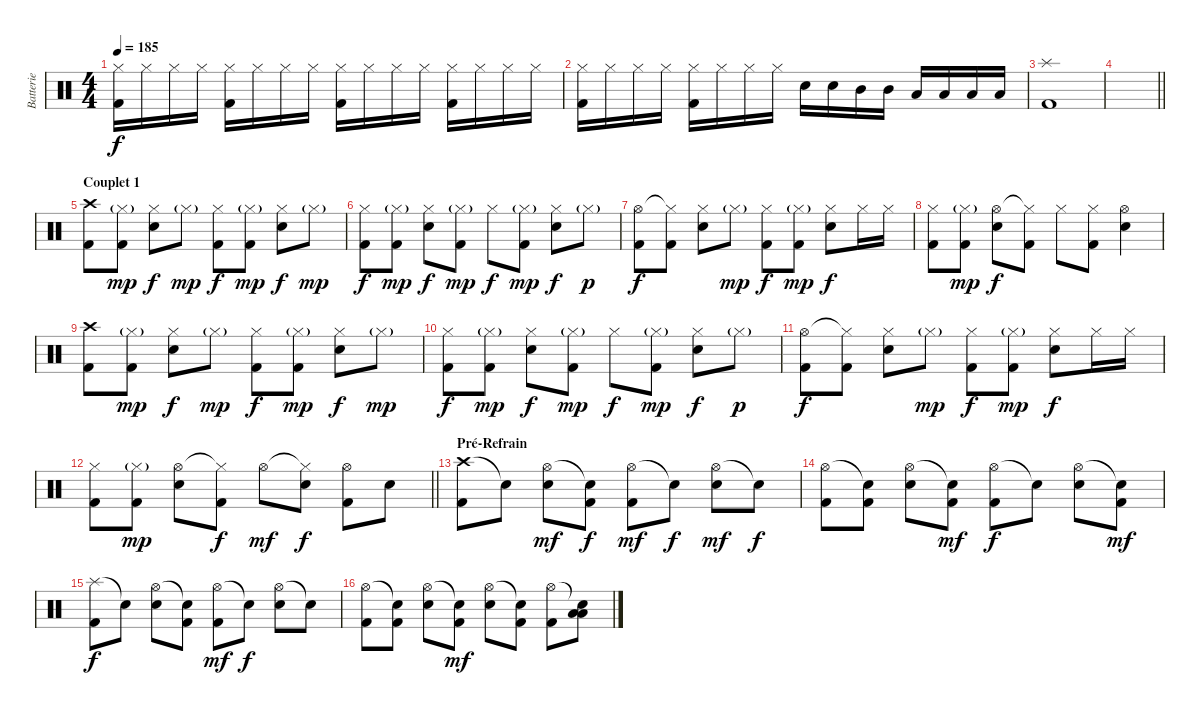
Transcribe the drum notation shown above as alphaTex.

\track ("Batterie" "Batterie") {instrument percussion}
\staff {score}
\articulation defaults
\ts (4 4)
\tempo 185
\clef neutral
\ks c
("Hi-Hat (closed)" "Kick (hit) 2").16{dy f} "Hi-Hat (closed)".16 "Hi-Hat (closed)".16 "Hi-Hat (closed)".16 ("Hi-Hat (closed)" "Kick (hit) 2").16 "Hi-Hat (closed)".16 "Hi-Hat (closed)".16 "Hi-Hat (closed)".16 ("Hi-Hat (closed)" "Kick (hit) 2").16 "Hi-Hat (closed)".16 "Hi-Hat (closed)".16 "Hi-Hat (closed)".16 ("Hi-Hat (closed)" "Kick (hit) 2").16 "Hi-Hat (closed)".16 "Hi-Hat (closed)".16 "Hi-Hat (closed)".16 |
("Hi-Hat (closed)" "Kick (hit) 2").16 "Hi-Hat (closed)".16 "Hi-Hat (closed)".16 "Hi-Hat (closed)".16 ("Hi-Hat (closed)" "Kick (hit) 2").16 "Hi-Hat (closed)".16 "Hi-Hat (closed)".16 "Hi-Hat (closed)".16 "Electric Snare (hit)".16 "Electric Snare (hit)".16 "Mid Tom (hit)".16 "Mid Tom (hit)".16 "Low Tom (hit)".16 "Low Tom (hit)".16 "Low Floor Tom (hit)".16 "Low Floor Tom (hit)".16 |
("Splash (hit)" "Kick (hit) 2").1 |
\barLineRight lightlight
|
\section ("" "Couplet 1")
("Crash high (hit)" "Kick (hit) 2").8 ("Hi-Hat (closed)"{g} "Kick (hit) 2").8{dy mp} ("Hi-Hat (closed)" "Electric Snare (hit)").8{dy f} "Hi-Hat (closed)"{g}.8{dy mp} ("Hi-Hat (closed)" "Kick (hit) 2").8{dy f} ("Hi-Hat (closed)"{g} "Kick (hit) 2").8{dy mp} ("Hi-Hat (closed)" "Electric Snare (hit)").8{dy f} "Hi-Hat (closed)"{g}.8{dy mp} |
("Hi-Hat (closed)" "Kick (hit) 2").8{dy f} ("Hi-Hat (closed)"{g} "Kick (hit) 2").8{dy mp} ("Hi-Hat (closed)" "Electric Snare (hit)").8{dy f} ("Hi-Hat (closed)"{g} "Kick (hit) 2").8{dy mp} "Hi-Hat (closed)".8{dy f} ("Hi-Hat (closed)"{g} "Kick (hit) 2").8{dy mp} ("Hi-Hat (closed)" "Electric Snare (hit)").8{dy f} "Hi-Hat (closed)"{g}.8{dy p} |
("Hi-Hat (open)" "Kick (hit) 2").8{dy f} ("Hi-Hat (closed)"{t} "Kick (hit) 2").8 ("Hi-Hat (closed)" "Electric Snare (hit)").8 "Hi-Hat (closed)"{g}.8{dy mp} ("Hi-Hat (closed)" "Kick (hit) 2").8{dy f} ("Hi-Hat (closed)"{g} "Kick (hit) 2").8{dy mp} ("Hi-Hat (closed)" "Electric Snare (hit)").8{dy f} "Hi-Hat (closed)".16 "Hi-Hat (closed)".16 |
("Hi-Hat (closed)" "Kick (hit) 2").8 ("Hi-Hat (closed)"{g} "Kick (hit) 2").8{dy mp} ("Hi-Hat (open)" "Electric Snare (hit)").8{dy f} ("Hi-Hat (closed)"{t} "Kick (hit) 2").8 "Hi-Hat (closed)".8 ("Hi-Hat (closed)" "Kick (hit) 2").8 ("Hi-Hat (open)" "Electric Snare (hit)").4 |
("Crash high (hit)" "Kick (hit) 2").8 ("Hi-Hat (closed)"{g} "Kick (hit) 2").8{dy mp} ("Hi-Hat (closed)" "Electric Snare (hit)").8{dy f} "Hi-Hat (closed)"{g}.8{dy mp} ("Hi-Hat (closed)" "Kick (hit) 2").8{dy f} ("Hi-Hat (closed)"{g} "Kick (hit) 2").8{dy mp} ("Hi-Hat (closed)" "Electric Snare (hit)").8{dy f} "Hi-Hat (closed)"{g}.8{dy mp} |
("Hi-Hat (closed)" "Kick (hit) 2").8{dy f} ("Hi-Hat (closed)"{g} "Kick (hit) 2").8{dy mp} ("Hi-Hat (closed)" "Electric Snare (hit)").8{dy f} ("Hi-Hat (closed)"{g} "Kick (hit) 2").8{dy mp} "Hi-Hat (closed)".8{dy f} ("Hi-Hat (closed)"{g} "Kick (hit) 2").8{dy mp} ("Hi-Hat (closed)" "Electric Snare (hit)").8{dy f} "Hi-Hat (closed)"{g}.8{dy p} |
("Hi-Hat (open)" "Kick (hit) 2").8{dy f} ("Hi-Hat (closed)"{t} "Kick (hit) 2").8 ("Hi-Hat (closed)" "Electric Snare (hit)").8 "Hi-Hat (closed)"{g}.8{dy mp} ("Hi-Hat (closed)" "Kick (hit) 2").8{dy f} ("Hi-Hat (closed)"{g} "Kick (hit) 2").8{dy mp} ("Hi-Hat (closed)" "Electric Snare (hit)").8{dy f} "Hi-Hat (closed)".16 "Hi-Hat (closed)".16 |
\barLineRight lightlight
("Hi-Hat (closed)" "Kick (hit) 2").8 ("Hi-Hat (closed)"{g} "Kick (hit) 2").8{dy mp} ("Hi-Hat (open)" "Electric Snare (hit)").8 ("Hi-Hat (closed)"{t} "Kick (hit) 2").8{dy f} "Hi-Hat (open)".8{dy mf} ("Hi-Hat (closed)"{t} "Electric Snare (hit)").8{dy f} ("Hi-Hat (open)" "Kick (hit) 2").8 "Electric Snare (hit)".8 |
\section ("" "Pré-Refrain")
("Crash high (hit)" "Kick (hit) 2").8 "Snare (hit)"{t}.8 ("Hi-Hat (open)" "Electric Snare (hit)").8{dy mf} ("Snare (hit)"{t} "Kick (hit) 2").8{dy f} ("Hi-Hat (open)" "Kick (hit) 2").8{dy mf} "Snare (hit)"{t}.8{dy f} ("Hi-Hat (open)" "Electric Snare (hit)").8{dy mf} "Snare (hit)"{t}.8{dy f} |
("Hi-Hat (open)" "Kick (hit) 2").8 ("Snare (hit)"{t} "Kick (hit) 2").8 ("Hi-Hat (open)" "Electric Snare (hit)").8 ("Snare (hit)"{t} "Kick (hit) 2").8{dy mf} ("Hi-Hat (open)" "Kick (hit) 2").8{dy f} "Snare (hit)"{t}.8 ("Hi-Hat (open)" "Electric Snare (hit)").8 ("Snare (hit)"{t} "Kick (hit) 2").8{dy mf} |
("Splash (hit)" "Kick (hit) 2").8{dy f} "Snare (hit)"{t}.8 ("Hi-Hat (open)" "Electric Snare (hit)").8 ("Snare (hit)"{t} "Kick (hit) 2").8 ("Hi-Hat (open)" "Kick (hit) 2").8{dy mf} "Snare (hit)"{t}.8{dy f} ("Hi-Hat (open)" "Electric Snare (hit)").8 "Snare (hit)"{t}.8 |
("Hi-Hat (open)" "Kick (hit) 2").8 ("Snare (hit)"{t} "Kick (hit) 2").8 ("Hi-Hat (open)" "Electric Snare (hit)").8 ("Snare (hit)"{t} "Kick (hit) 2").8{dy mf} ("Hi-Hat (open)" "Electric Snare (hit)").8 ("Snare (hit)"{t} "Kick (hit) 2").8 ("Hi-Hat (open)" "Kick (hit) 2").8 ("Snare (hit)"{t} "Low Tom (hit)" "Low Floor Tom (hit)").8
